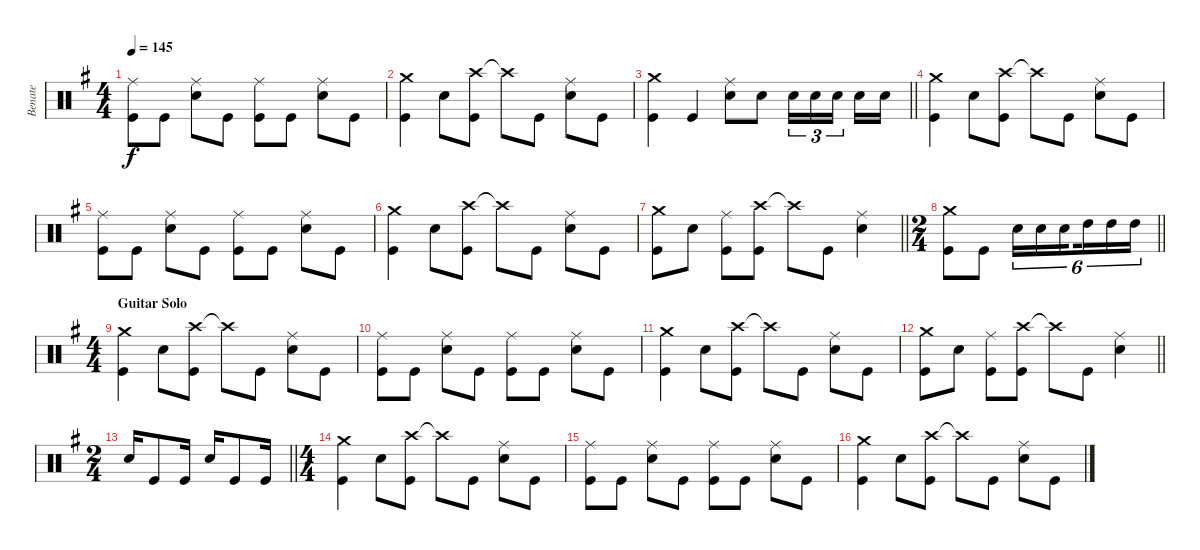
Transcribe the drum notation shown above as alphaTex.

\track ("Benate" "Benate") {instrument percussion}
\staff {score}
\articulation defaults
\ts (4 4)
\tempo 145
\clef neutral
\ks g
("Ride (middle)" "Kick (hit)").8{dy f} "Kick (hit)".8 ("Ride (middle)" "Snare (hit) 2").8 "Kick (hit)".8 ("Ride (middle)" "Kick (hit)").8 "Kick (hit)".8 ("Ride (middle)" "Snare (hit) 2").8 "Kick (hit)".8 |
("Crash medium (hit)" "Kick (hit)").4 "Snare (hit) 2".8 ("Crash high (hit)" "Kick (hit)").8 "Crash high (hit)"{t}.8 "Kick (hit)".8 ("Ride (middle)" "Snare (hit) 2").8 "Kick (hit)".8 |
\barLineRight lightlight
("Crash medium (hit)" "Kick (hit)").4 "Kick (hit)".4 ("Ride (middle)" "Snare (hit) 2").8 "Snare (hit) 2".8 "Snare (hit) 2".16{tu (3 2)} "Snare (hit) 2".16{tu (3 2)} "Snare (hit) 2".16{tu (3 2) beam splitsecondary} "Snare (hit) 2".16 "Snare (hit) 2".16 |
("Crash medium (hit)" "Kick (hit)").4 "Snare (hit) 2".8 ("Crash high (hit)" "Kick (hit)").8 "Crash high (hit)"{t}.8 "Kick (hit)".8 ("Ride (middle)" "Snare (hit) 2").8 "Kick (hit)".8 |
("Ride (middle)" "Kick (hit)").8 "Kick (hit)".8 ("Ride (middle)" "Snare (hit) 2").8 "Kick (hit)".8 ("Ride (middle)" "Kick (hit)").8 "Kick (hit)".8 ("Ride (middle)" "Snare (hit) 2").8 "Kick (hit)".8 |
("Crash medium (hit)" "Kick (hit)").4 "Snare (hit) 2".8 ("Crash high (hit)" "Kick (hit)").8 "Crash high (hit)"{t}.8 "Kick (hit)".8 ("Ride (middle)" "Snare (hit) 2").8 "Kick (hit)".8 |
\barLineRight lightlight
("Crash medium (hit)" "Kick (hit)").8 "Snare (hit) 2".8 ("Ride (middle)" "Kick (hit)").8 ("Crash high (hit)" "Kick (hit)").8 "Crash high (hit)"{t}.8 "Kick (hit)".8 ("Ride (middle)" "Snare (hit) 2").4 |
\ts (2 4)
\barLineRight lightlight
("Crash medium (hit)" "Kick (hit)").8 "Kick (hit)".8 "Snare (hit) 2".16{tu (6 4)} "Snare (hit) 2".16{tu (6 4)} "Snare (hit) 2".16{tu (6 4) beam splitsecondary} "High Tom (hit)".16{tu (6 4)} "High Tom (hit)".16{tu (6 4)} "High Tom (hit)".16{tu (6 4)} |
\ts (4 4)
\section ("" "Guitar Solo")
("Crash medium (hit)" "Kick (hit)").4 "Snare (hit) 2".8 ("Crash high (hit)" "Kick (hit)").8 "Crash high (hit)"{t}.8 "Kick (hit)".8 ("Ride (middle)" "Snare (hit) 2").8 "Kick (hit)".8 |
("Ride (middle)" "Kick (hit)").8 "Kick (hit)".8 ("Ride (middle)" "Snare (hit) 2").8 "Kick (hit)".8 ("Ride (middle)" "Kick (hit)").8 "Kick (hit)".8 ("Ride (middle)" "Snare (hit) 2").8 "Kick (hit)".8 |
("Crash medium (hit)" "Kick (hit)").4 "Snare (hit) 2".8 ("Crash high (hit)" "Kick (hit)").8 "Crash high (hit)"{t}.8 "Kick (hit)".8 ("Ride (middle)" "Snare (hit) 2").8 "Kick (hit)".8 |
\barLineRight lightlight
("Crash medium (hit)" "Kick (hit)").8 "Snare (hit) 2".8 ("Ride (middle)" "Kick (hit)").8 ("Crash high (hit)" "Kick (hit)").8 "Crash high (hit)"{t}.8 "Kick (hit)".8 ("Ride (middle)" "Snare (hit) 2").4 |
\ts (2 4)
\barLineRight lightlight "Snare (hit) 2".16 "Kick (hit)".8 "Kick (hit)".16 "Snare (hit) 2".16 "Kick (hit)".8 "Kick (hit)".16
|
\ts (4 4)
("Crash medium (hit)" "Kick (hit)").4 "Snare (hit) 2".8 ("Crash high (hit)" "Kick (hit)").8 "Crash high (hit)"{t}.8 "Kick (hit)".8 ("Ride (middle)" "Snare (hit) 2").8 "Kick (hit)".8 |
("Ride (middle)" "Kick (hit)").8 "Kick (hit)".8 ("Ride (middle)" "Snare (hit) 2").8 "Kick (hit)".8 ("Ride (middle)" "Kick (hit)").8 "Kick (hit)".8 ("Ride (middle)" "Snare (hit) 2").8 "Kick (hit)".8 |
("Crash medium (hit)" "Kick (hit)").4 "Snare (hit) 2".8 ("Crash high (hit)" "Kick (hit)").8 "Crash high (hit)"{t}.8 "Kick (hit)".8 ("Ride (middle)" "Snare (hit) 2").8 "Kick (hit)".8
